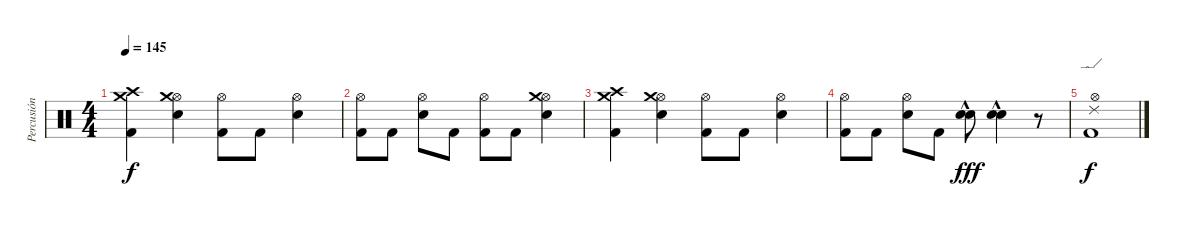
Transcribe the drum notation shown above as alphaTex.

\track ("Percusión" "Percusión") {instrument percussion}
\staff {score}
\articulation defaults
\ts (4 4)
\tempo 145
\clef neutral
\ks c
("Crash medium (hit)" "Crash high (hit)" "Kick (hit) 2").4{dy f} ("Hi-Hat (open)" "Crash medium (hit)" "Electric Snare (hit)").4 ("Hi-Hat (open)" "Kick (hit) 2").8 "Kick (hit) 2".8 ("Hi-Hat (open)" "Electric Snare (hit)").4 |
("Hi-Hat (open)" "Kick (hit) 2").8 "Kick (hit) 2".8 ("Hi-Hat (open)" "Electric Snare (hit)").8 "Kick (hit) 2".8 ("Hi-Hat (open)" "Kick (hit) 2").8 "Kick (hit) 2".8 ("Hi-Hat (open)" "Crash medium (hit)" "Electric Snare (hit)").4 |
("Crash medium (hit)" "Crash high (hit)" "Kick (hit) 2").4 ("Hi-Hat (open)" "Crash medium (hit)" "Electric Snare (hit)").4 ("Hi-Hat (open)" "Kick (hit) 2").8 "Kick (hit) 2".8 ("Hi-Hat (open)" "Electric Snare (hit)").4 |
("Hi-Hat (open)" "Kick (hit) 2").8 "Kick (hit) 2".8 ("Hi-Hat (open)" "Electric Snare (hit)").8 "Kick (hit) 2".8 ("Electric Snare (hit)"{hac} "Electric Snare (hit)"{hac}).8{dy fff} ("Electric Snare (hit)"{hac} "Electric Snare (hit)"{hac}).4 r.8 |
("Ride (edge) 2" "Hi-Hat (open)" "Kick (hit) 2").1{dy f}
